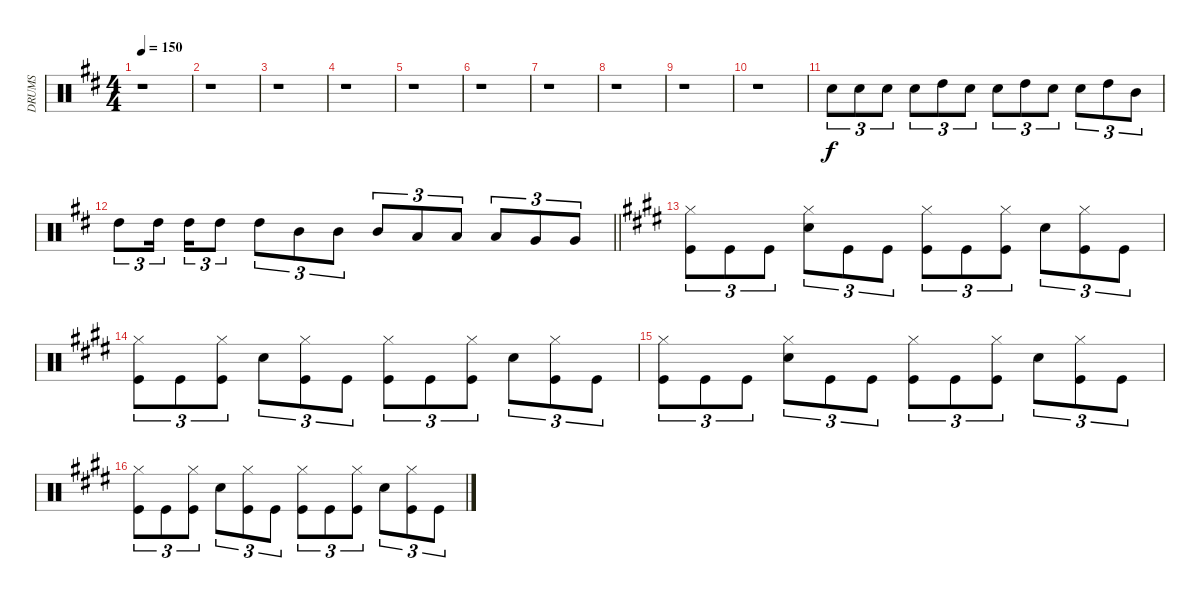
\track ("DRUMS" "DRUMS") {instrument percussion}
\staff {score}
\articulation defaults
\ts (4 4)
\tempo 150
\clef neutral
\ks d
r.1{dy f} |
r.1 |
r.1 |
r.1 |
r.1 |
r.1 |
r.1 |
r.1 |
r.1 |
r.1 |
"Snare (hit) 2".8{tu (3 2)} "Snare (hit) 2".8{tu (3 2)} "Snare (hit) 2".8{tu (3 2)} "Snare (hit) 2".8{tu (3 2)} "High Tom (hit)".8{tu (3 2)} "Snare (hit) 2".8{tu (3 2)} "Snare (hit) 2".8{tu (3 2)} "High Tom (hit)".8{tu (3 2)} "Snare (hit) 2".8{tu (3 2)} "Snare (hit) 2".8{tu (3 2)} "High Tom (hit)".8{tu (3 2)} "Mid Tom (hit)".8{tu (3 2)} |
\barLineRight lightlight "High Tom (hit)".8{tu (3 2)} "High Tom (hit)".16{tu (3 2) beam splitsecondary} "High Tom (hit)".16{tu (3 2)} "High Tom (hit)".8{tu (3 2)} "High Tom (hit)".8{tu (3 2)} "Mid Tom (hit)".8{tu (3 2)} "Mid Tom (hit)".8{tu (3 2)} "Mid Tom (hit)".8{tu (3 2)} "Low Tom (hit)".8{tu (3 2)} "Low Tom (hit)".8{tu (3 2)} "Low Tom (hit)".8{tu (3 2)} "Very Low Tom (hit)".8{tu (3 2)} "Very Low Tom (hit)".8{tu (3 2)}
|
\ks e
("Hi-Hat (closed)" "Kick (hit)").8{tu (3 2)} "Kick (hit)".8{tu (3 2)} "Kick (hit)".8{tu (3 2)} ("Hi-Hat (closed)" "Snare (hit) 2").8{tu (3 2)} "Kick (hit)".8{tu (3 2)} "Kick (hit)".8{tu (3 2)} ("Hi-Hat (closed)" "Kick (hit)").8{tu (3 2)} "Kick (hit)".8{tu (3 2)} ("Hi-Hat (closed)" "Kick (hit)").8{tu (3 2)} "Snare (hit) 2".8{tu (3 2)} ("Hi-Hat (closed)" "Kick (hit)").8{tu (3 2)} "Kick (hit)".8{tu (3 2)} |
("Hi-Hat (closed)" "Kick (hit)").8{tu (3 2)} "Kick (hit)".8{tu (3 2)} ("Hi-Hat (closed)" "Kick (hit)").8{tu (3 2)} "Snare (hit) 2".8{tu (3 2)} ("Hi-Hat (closed)" "Kick (hit)").8{tu (3 2)} "Kick (hit)".8{tu (3 2)} ("Hi-Hat (closed)" "Kick (hit)").8{tu (3 2)} "Kick (hit)".8{tu (3 2)} ("Hi-Hat (closed)" "Kick (hit)").8{tu (3 2)} "Snare (hit) 2".8{tu (3 2)} ("Hi-Hat (closed)" "Kick (hit)").8{tu (3 2)} "Kick (hit)".8{tu (3 2)} |
("Hi-Hat (closed)" "Kick (hit)").8{tu (3 2)} "Kick (hit)".8{tu (3 2)} "Kick (hit)".8{tu (3 2)} ("Hi-Hat (closed)" "Snare (hit) 2").8{tu (3 2)} "Kick (hit)".8{tu (3 2)} "Kick (hit)".8{tu (3 2)} ("Hi-Hat (closed)" "Kick (hit)").8{tu (3 2)} "Kick (hit)".8{tu (3 2)} ("Hi-Hat (closed)" "Kick (hit)").8{tu (3 2)} "Snare (hit) 2".8{tu (3 2)} ("Hi-Hat (closed)" "Kick (hit)").8{tu (3 2)} "Kick (hit)".8{tu (3 2)} |
("Hi-Hat (closed)" "Kick (hit)").8{tu (3 2)} "Kick (hit)".8{tu (3 2)} ("Hi-Hat (closed)" "Kick (hit)").8{tu (3 2)} "Snare (hit) 2".8{tu (3 2)} ("Hi-Hat (closed)" "Kick (hit)").8{tu (3 2)} "Kick (hit)".8{tu (3 2)} ("Hi-Hat (closed)" "Kick (hit)").8{tu (3 2)} "Kick (hit)".8{tu (3 2)} ("Hi-Hat (closed)" "Kick (hit)").8{tu (3 2)} "Snare (hit) 2".8{tu (3 2)} ("Hi-Hat (closed)" "Kick (hit)").8{tu (3 2)} "Kick (hit)".8{tu (3 2)}
